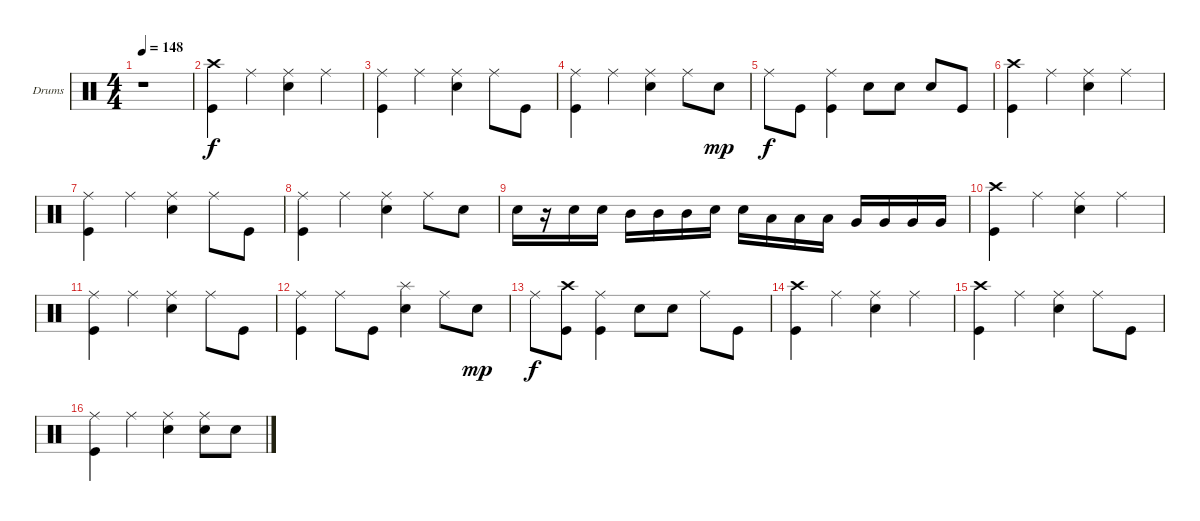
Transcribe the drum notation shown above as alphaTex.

\bracketExtendMode groupsimilarinstruments
\firstSystemTrackNameOrientation horizontal
\otherSystemsTrackNameOrientation horizontal
\track ("Drumkit" "Drums") {instrument percussion}
\staff {score}
\articulation defaults
\ts (4 4)
\tempo 148
\clef neutral
\ks c
r.1{dy f} |
("Crash high (hit)" "Kick (hit)").4 "Ride (middle)".4 ("Ride (middle)" "Snare (hit) 2").4 "Ride (middle)".4 |
("Ride (middle)" "Kick (hit)").4 "Ride (middle)".4 ("Ride (middle)" "Snare (hit) 2").4 "Ride (middle)".8 "Kick (hit)".8 |
("Ride (middle)" "Kick (hit)").4 "Ride (middle)".4 ("Ride (middle)" "Snare (hit) 2").4 "Ride (middle)".8 "Snare (hit) 2".8{dy mp} |
"Ride (middle)".8{dy f} "Kick (hit)".8 ("Ride (middle)" "Kick (hit)").4 "Snare (hit) 2".8 "Snare (hit) 2".8 "Snare (hit) 2".8 "Kick (hit)".8 |
("Crash high (hit)" "Kick (hit)").4 "Ride (middle)".4 ("Ride (middle)" "Snare (hit) 2").4 "Ride (middle)".4 |
("Ride (middle)" "Kick (hit)").4 "Ride (middle)".4 ("Ride (middle)" "Snare (hit) 2").4 "Ride (middle)".8 "Kick (hit)".8 |
("Ride (middle)" "Kick (hit)").4 "Ride (middle)".4 ("Ride (middle)" "Snare (hit) 2").4 "Ride (middle)".8 "Snare (hit) 2".8 |
"Snare (hit) 2".16 r.16 "Snare (hit) 2".16 "Snare (hit) 2".16 "Mid Tom (hit)".16 "Mid Tom (hit)".16 "Mid Tom (hit)".16 "Snare (hit) 2".16 "Snare (hit) 2".16 "Low Tom (hit)".16 "Low Tom (hit)".16 "Low Tom (hit)".16 "Very Low Tom (hit)".16 "Very Low Tom (hit)".16 "Very Low Tom (hit)".16 "Very Low Tom (hit)".16 |
("Crash high (hit)" "Kick (hit)").4 "Ride (middle)".4 ("Ride (middle)" "Snare (hit) 2").4 "Ride (middle)".4 |
("Ride (middle)" "Kick (hit)").4 "Ride (middle)".4 ("Ride (middle)" "Snare (hit) 2").4 "Ride (middle)".8 "Kick (hit)".8 |
("Ride (middle)" "Kick (hit)").4 "Ride (middle)".8 "Kick (hit)".8 ("Splash (hit)" "Snare (hit) 2").4 "Ride (middle)".8 "Snare (hit) 2".8{dy mp} |
"Ride (middle)".8{dy f} ("Crash high (hit)" "Kick (hit)").8 ("Ride (middle)" "Kick (hit)").4 "Snare (hit) 2".8 "Snare (hit) 2".8 "Ride (middle)".8 "Kick (hit)".8 |
("Crash high (hit)" "Kick (hit)").4 "Ride (middle)".4 ("Ride (middle)" "Snare (hit) 2").4 "Ride (middle)".4 |
("Crash high (hit)" "Kick (hit)").4 "Ride (middle)".4 ("Ride (middle)" "Snare (hit) 2").4 "Ride (middle)".8 "Kick (hit)".8 |
("Ride (middle)" "Kick (hit)").4 "Ride (middle)".4 ("Ride (middle)" "Snare (hit) 2").4 ("Ride (middle)" "Snare (hit) 2").8 "Snare (hit) 2".8
